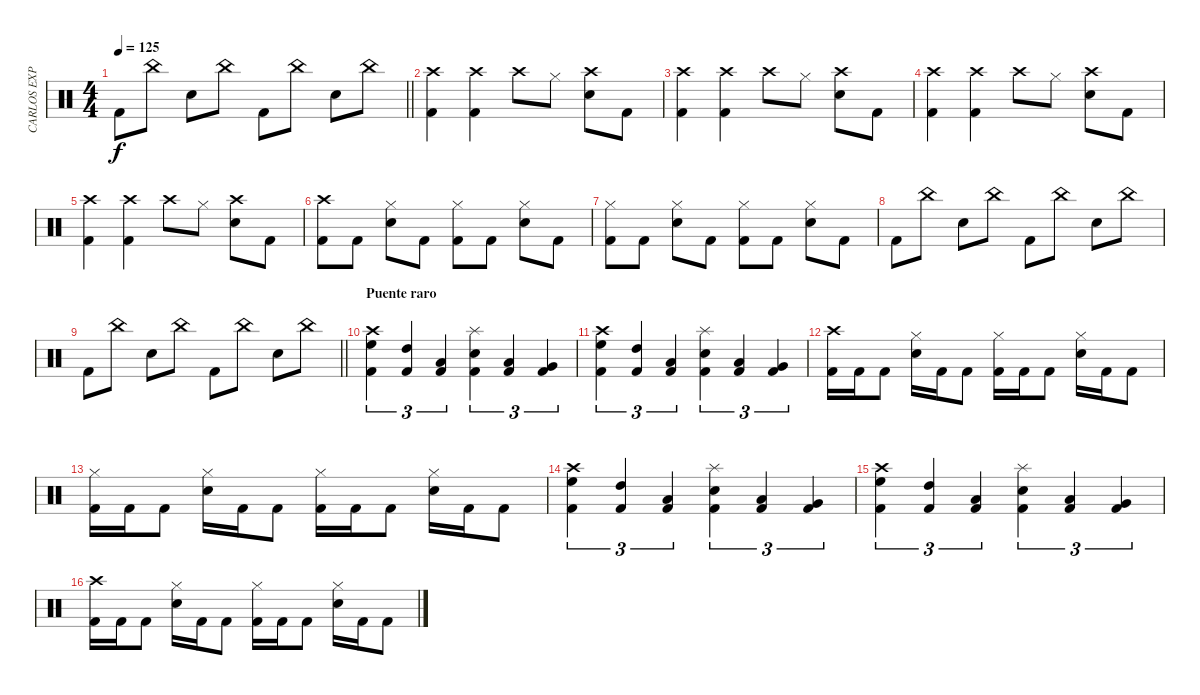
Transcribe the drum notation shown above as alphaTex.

\track ("CARLOS EXPÓSITO" "CARLOS EXP") {instrument percussion}
\staff {score}
\articulation defaults
\ts (4 4)
\tempo 125
\clef neutral
\barLineRight lightlight
\ks c "Kick (hit) 2".8{dy f} "China (hit)".8 "Snare (hit) 2".8 "China (hit)".8 "Kick (hit) 2".8 "China (hit)".8 "Snare (hit) 2".8 "China (hit)".8
|
("Crash high (hit)" "Kick (hit) 2").4 ("Kick (hit) 2" "Crash high (hit)").4 "Crash high (hit)".8 "Hi-Hat (closed)".8 ("Crash high (hit)" "Snare (hit) 2").8 "Kick (hit) 2".8 |
("Crash high (hit)" "Kick (hit) 2").4 ("Kick (hit) 2" "Crash high (hit)").4 "Crash high (hit)".8 "Hi-Hat (closed)".8 ("Crash high (hit)" "Snare (hit) 2").8 "Kick (hit) 2".8 |
("Crash high (hit)" "Kick (hit) 2").4 ("Kick (hit) 2" "Crash high (hit)").4 "Crash high (hit)".8 "Hi-Hat (closed)".8 ("Crash high (hit)" "Snare (hit) 2").8 "Kick (hit) 2".8 |
("Crash high (hit)" "Kick (hit) 2").4 ("Kick (hit) 2" "Crash high (hit)").4 "Crash high (hit)".8 "Hi-Hat (closed)".8 ("Crash high (hit)" "Snare (hit) 2").8 "Kick (hit) 2".8 |
("Crash high (hit)" "Kick (hit) 2").8 "Kick (hit) 2".8 ("Hi-Hat (closed)" "Snare (hit) 2").8 "Kick (hit) 2".8 ("Hi-Hat (closed)" "Kick (hit) 2").8 "Kick (hit) 2".8 ("Hi-Hat (closed)" "Snare (hit) 2").8 "Kick (hit) 2".8 |
("Hi-Hat (closed)" "Kick (hit) 2").8 "Kick (hit) 2".8 ("Hi-Hat (closed)" "Snare (hit) 2").8 "Kick (hit) 2".8 ("Hi-Hat (closed)" "Kick (hit) 2").8 "Kick (hit) 2".8 ("Hi-Hat (closed)" "Snare (hit) 2").8 "Kick (hit) 2".8 |
"Kick (hit) 2".8 "China (hit)".8 "Snare (hit) 2".8 "China (hit)".8 "Kick (hit) 2".8 "China (hit)".8 "Snare (hit) 2".8 "China (hit)".8 |
\barLineRight lightlight "Kick (hit) 2".8 "China (hit)".8 "Snare (hit) 2".8 "China (hit)".8 "Kick (hit) 2".8 "China (hit)".8 "Snare (hit) 2".8 "China (hit)".8
|
\section ("" "Puente raro")
("High Floor Tom (hit)" "Crash high (hit)" "Kick (hit) 2").4{tu (3 2)} ("High Tom (hit)" "Kick (hit) 2").4{tu (3 2)} ("Low Tom (hit)" "Kick (hit) 2").4{tu (3 2)} ("Snare (hit) 2" "Splash (hit)" "Kick (hit) 2").4{tu (3 2)} ("Low Tom (hit)" "Kick (hit) 2").4{tu (3 2)} ("Very Low Tom (hit)" "Kick (hit) 2").4{tu (3 2)} |
("High Floor Tom (hit)" "Crash high (hit)" "Kick (hit) 2").4{tu (3 2)} ("High Tom (hit)" "Kick (hit) 2").4{tu (3 2)} ("Low Tom (hit)" "Kick (hit) 2").4{tu (3 2)} ("Snare (hit) 2" "Splash (hit)" "Kick (hit) 2").4{tu (3 2)} ("Low Tom (hit)" "Kick (hit) 2").4{tu (3 2)} ("Very Low Tom (hit)" "Kick (hit) 2").4{tu (3 2)} |
("Kick (hit) 2" "Crash high (hit)").16 "Kick (hit) 2".16 "Kick (hit) 2".8 ("Snare (hit) 2" "Hi-Hat (closed)").16 "Kick (hit) 2".16 "Kick (hit) 2".8 ("Kick (hit) 2" "Hi-Hat (closed)").16 "Kick (hit) 2".16 "Kick (hit) 2".8 ("Snare (hit) 2" "Hi-Hat (closed)").16 "Kick (hit) 2".16 "Kick (hit) 2".8 |
("Kick (hit) 2" "Hi-Hat (closed)").16 "Kick (hit) 2".16 "Kick (hit) 2".8 ("Snare (hit) 2" "Hi-Hat (closed)").16 "Kick (hit) 2".16 "Kick (hit) 2".8 ("Kick (hit) 2" "Hi-Hat (closed)").16 "Kick (hit) 2".16 "Kick (hit) 2".8 ("Snare (hit) 2" "Hi-Hat (closed)").16 "Kick (hit) 2".16 "Kick (hit) 2".8 |
("High Floor Tom (hit)" "Crash high (hit)" "Kick (hit) 2").4{tu (3 2)} ("High Tom (hit)" "Kick (hit) 2").4{tu (3 2)} ("Low Tom (hit)" "Kick (hit) 2").4{tu (3 2)} ("Snare (hit) 2" "Splash (hit)" "Kick (hit) 2").4{tu (3 2)} ("Low Tom (hit)" "Kick (hit) 2").4{tu (3 2)} ("Very Low Tom (hit)" "Kick (hit) 2").4{tu (3 2)} |
("High Floor Tom (hit)" "Crash high (hit)" "Kick (hit) 2").4{tu (3 2)} ("High Tom (hit)" "Kick (hit) 2").4{tu (3 2)} ("Low Tom (hit)" "Kick (hit) 2").4{tu (3 2)} ("Snare (hit) 2" "Splash (hit)" "Kick (hit) 2").4{tu (3 2)} ("Low Tom (hit)" "Kick (hit) 2").4{tu (3 2)} ("Very Low Tom (hit)" "Kick (hit) 2").4{tu (3 2)} |
("Kick (hit) 2" "Crash high (hit)").16 "Kick (hit) 2".16 "Kick (hit) 2".8 ("Snare (hit) 2" "Hi-Hat (closed)").16 "Kick (hit) 2".16 "Kick (hit) 2".8 ("Kick (hit) 2" "Hi-Hat (closed)").16 "Kick (hit) 2".16 "Kick (hit) 2".8 ("Snare (hit) 2" "Hi-Hat (closed)").16 "Kick (hit) 2".16 "Kick (hit) 2".8
